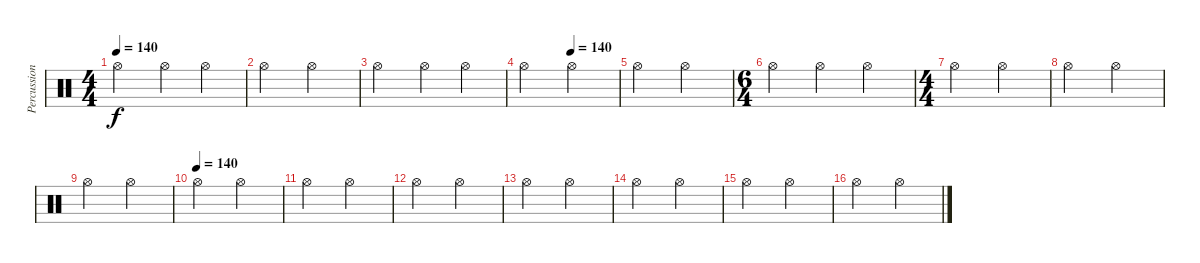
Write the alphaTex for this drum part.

\track ("Percussions" "Percussion") {instrument percussion}
\staff {score}
\articulation defaults
\ts (4 4)
\tempo 140
\clef neutral
\ks c "Hi-Hat (open)".2{dy f} "Hi-Hat (open)".4 "Hi-Hat (open)".4
|
"Hi-Hat (open)".2 "Hi-Hat (open)".2 |
"Hi-Hat (open)".2 "Hi-Hat (open)".4 "Hi-Hat (open)".4 |
\tempo (140 0.5)
"Hi-Hat (open)".2 "Hi-Hat (open)".2 |
"Hi-Hat (open)".2 "Hi-Hat (open)".2 |
\ts (6 4)
"Hi-Hat (open)".2 "Hi-Hat (open)".2 "Hi-Hat (open)".2 |
\ts (4 4)
"Hi-Hat (open)".2 "Hi-Hat (open)".2 |
"Hi-Hat (open)".2 "Hi-Hat (open)".2 |
"Hi-Hat (open)".2 "Hi-Hat (open)".2 |
\tempo (140)
"Hi-Hat (open)".2 "Hi-Hat (open)".2 |
"Hi-Hat (open)".2 "Hi-Hat (open)".2 |
"Hi-Hat (open)".2 "Hi-Hat (open)".2 |
"Hi-Hat (open)".2 "Hi-Hat (open)".2 |
"Hi-Hat (open)".2 "Hi-Hat (open)".2 |
"Hi-Hat (open)".2 "Hi-Hat (open)".2 |
"Hi-Hat (open)".2 "Hi-Hat (open)".2
